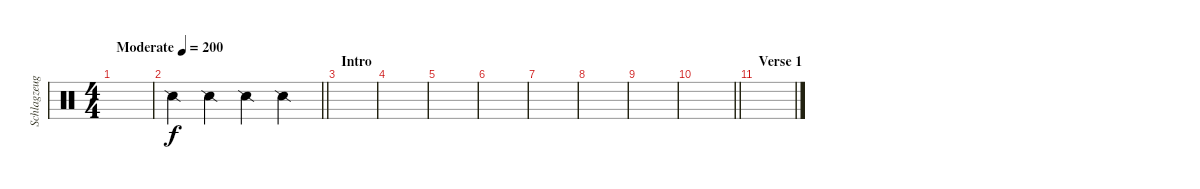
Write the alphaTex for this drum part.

\track ("Schlagzeug" "Schlagzeug") {instrument percussion}
\staff {score}
\articulation defaults
\ts (4 4)
\tempo (200 "Moderate")
\clef neutral
\ks c
|
\barLineRight lightlight "Snare (side stick) 2".4 "Snare (side stick) 2".4 "Snare (side stick) 2".4 "Snare (side stick) 2".4
|
\section ("" "Intro")
|
|
|
|
|
|
|
\barLineRight lightlight
|
\section ("" "Verse 1")
